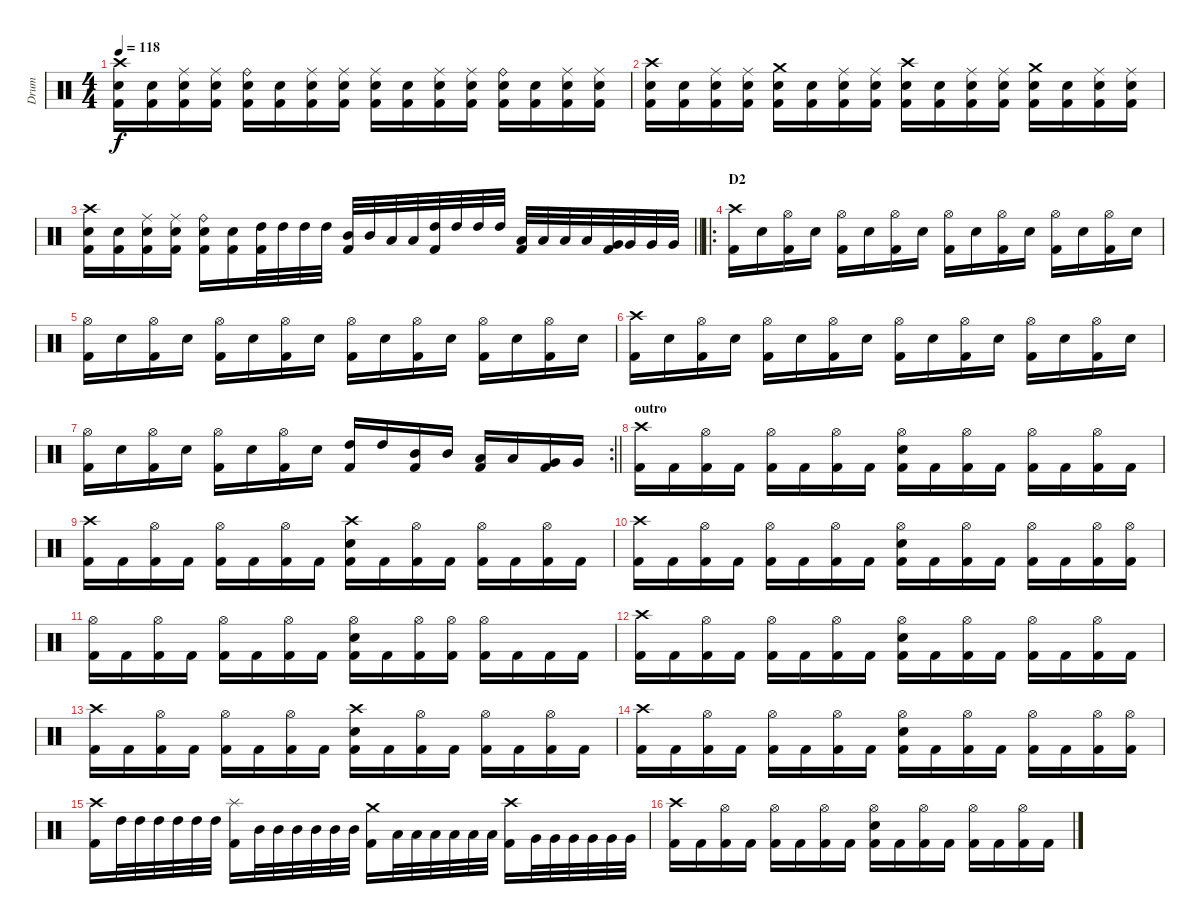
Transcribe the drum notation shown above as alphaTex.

\track ("Drum" "Drum") {instrument percussion}
\staff {score}
\articulation defaults
\ts (4 4)
\tempo 118
\clef neutral
\ks c
("Crash high (hit)" "Electric Snare (hit)" "Kick (hit) 2").16{dy f} ("Electric Snare (hit)" "Kick (hit) 2").16 ("Ride (middle)" "Electric Snare (hit)" "Kick (hit) 2").16 ("Ride (middle)" "Electric Snare (hit)" "Kick (hit) 2").16 ("Ride (bell)" "Electric Snare (hit)" "Kick (hit) 2").16 ("Electric Snare (hit)" "Kick (hit) 2").16 ("Ride (middle)" "Electric Snare (hit)" "Kick (hit) 2").16 ("Ride (middle)" "Electric Snare (hit)" "Kick (hit) 2").16 ("Ride (middle)" "Electric Snare (hit)" "Kick (hit) 2").16 ("Electric Snare (hit)" "Kick (hit) 2").16 ("Ride (middle)" "Electric Snare (hit)" "Kick (hit) 2").16 ("Ride (middle)" "Electric Snare (hit)" "Kick (hit) 2").16 ("Ride (bell)" "Electric Snare (hit)" "Kick (hit) 2").16 ("Electric Snare (hit)" "Kick (hit) 2").16 ("Ride (middle)" "Electric Snare (hit)" "Kick (hit) 2").16 ("Ride (middle)" "Electric Snare (hit)" "Kick (hit) 2").16 |
("Crash high (hit)" "Electric Snare (hit)" "Kick (hit) 2").16 ("Electric Snare (hit)" "Kick (hit) 2").16 ("Ride (middle)" "Electric Snare (hit)" "Kick (hit) 2").16 ("Ride (middle)" "Electric Snare (hit)" "Kick (hit) 2").16 ("Crash medium (hit)" "Electric Snare (hit)" "Kick (hit) 2").16 ("Electric Snare (hit)" "Kick (hit) 2").16 ("Ride (middle)" "Electric Snare (hit)" "Kick (hit) 2").16 ("Ride (middle)" "Electric Snare (hit)" "Kick (hit) 2").16 ("Crash high (hit)" "Electric Snare (hit)" "Kick (hit) 2").16 ("Electric Snare (hit)" "Kick (hit) 2").16 ("Ride (middle)" "Electric Snare (hit)" "Kick (hit) 2").16 ("Ride (middle)" "Electric Snare (hit)" "Kick (hit) 2").16 ("Crash medium (hit)" "Electric Snare (hit)" "Kick (hit) 2").16 ("Electric Snare (hit)" "Kick (hit) 2").16 ("Ride (middle)" "Electric Snare (hit)" "Kick (hit) 2").16 ("Ride (middle)" "Electric Snare (hit)" "Kick (hit) 2").16 |
\barLineRight lightlight
("Crash high (hit)" "Electric Snare (hit)" "Kick (hit) 2").16 ("Electric Snare (hit)" "Kick (hit) 2").16 ("Ride (middle)" "Electric Snare (hit)" "Kick (hit) 2").16 ("Ride (middle)" "Electric Snare (hit)" "Kick (hit) 2").16 ("Ride (bell)" "Electric Snare (hit)" "Kick (hit) 2").16 ("Electric Snare (hit)" "Kick (hit) 2").16 ("High Tom (hit)" "Kick (hit) 2").32 "High Tom (hit)".32 "High Tom (hit)".32 "High Tom (hit)".32 ("Mid Tom (hit)" "Kick (hit) 2").32 "Mid Tom (hit)".32 "Low Tom (hit)".32 "Low Tom (hit)".32 ("High Tom (hit)" "Kick (hit) 2").32 "High Tom (hit)".32 "High Tom (hit)".32 "High Tom (hit)".32 ("Low Tom (hit)" "Kick (hit) 2").32 "Low Tom (hit)".32 "Low Tom (hit)".32 "Low Tom (hit)".32 ("Very Low Tom (hit)" "Kick (hit) 2").32 "Very Low Tom (hit)".32 "Very Low Tom (hit)".32 "Very Low Tom (hit)".32 |
\ro
\section ("" "D2")
("Crash high (hit)" "Kick (hit) 2").16 "Electric Snare (hit)".16 ("Hi-Hat (open)" "Kick (hit) 2").16 "Electric Snare (hit)".16 ("Hi-Hat (open)" "Kick (hit) 2").16 "Electric Snare (hit)".16 ("Hi-Hat (open)" "Kick (hit) 2").16 "Electric Snare (hit)".16 ("Hi-Hat (open)" "Kick (hit) 2").16 "Electric Snare (hit)".16 ("Hi-Hat (open)" "Kick (hit) 2").16 "Electric Snare (hit)".16 ("Hi-Hat (open)" "Kick (hit) 2").16 "Electric Snare (hit)".16 ("Hi-Hat (open)" "Kick (hit) 2").16 "Electric Snare (hit)".16 |
("Hi-Hat (open)" "Kick (hit) 2").16 "Electric Snare (hit)".16 ("Hi-Hat (open)" "Kick (hit) 2").16 "Electric Snare (hit)".16 ("Hi-Hat (open)" "Kick (hit) 2").16 "Electric Snare (hit)".16 ("Hi-Hat (open)" "Kick (hit) 2").16 "Electric Snare (hit)".16 ("Hi-Hat (open)" "Kick (hit) 2").16 "Electric Snare (hit)".16 ("Hi-Hat (open)" "Kick (hit) 2").16 "Electric Snare (hit)".16 ("Hi-Hat (open)" "Kick (hit) 2").16 "Electric Snare (hit)".16 ("Hi-Hat (open)" "Kick (hit) 2").16 "Electric Snare (hit)".16 |
("Crash high (hit)" "Kick (hit) 2").16 "Electric Snare (hit)".16 ("Hi-Hat (open)" "Kick (hit) 2").16 "Electric Snare (hit)".16 ("Hi-Hat (open)" "Kick (hit) 2").16 "Electric Snare (hit)".16 ("Hi-Hat (open)" "Kick (hit) 2").16 "Electric Snare (hit)".16 ("Hi-Hat (open)" "Kick (hit) 2").16 "Electric Snare (hit)".16 ("Hi-Hat (open)" "Kick (hit) 2").16 "Electric Snare (hit)".16 ("Hi-Hat (open)" "Kick (hit) 2").16 "Electric Snare (hit)".16 ("Hi-Hat (open)" "Kick (hit) 2").16 "Electric Snare (hit)".16 |
\rc 2
\barLineRight lightlight
("Hi-Hat (open)" "Kick (hit) 2").16 "Electric Snare (hit)".16 ("Hi-Hat (open)" "Kick (hit) 2").16 "Electric Snare (hit)".16 ("Hi-Hat (open)" "Kick (hit) 2").16 "Electric Snare (hit)".16 ("Hi-Hat (open)" "Kick (hit) 2").16 "Electric Snare (hit)".16 ("High Tom (hit)" "Kick (hit) 2").16 "High Tom (hit)".16 ("Mid Tom (hit)" "Kick (hit) 2").16 "Mid Tom (hit)".16 ("Low Tom (hit)" "Kick (hit) 2").16 "Low Tom (hit)".16 ("Very Low Tom (hit)" "Kick (hit) 2").16 "Very Low Tom (hit)".16 |
\section ("" "outro")
("Crash high (hit)" "Kick (hit) 2").16 "Kick (hit) 2".16 ("Hi-Hat (open)" "Kick (hit) 2").16 "Kick (hit) 2".16 ("Hi-Hat (open)" "Kick (hit) 2").16 "Kick (hit) 2".16 ("Hi-Hat (open)" "Kick (hit) 2").16 "Kick (hit) 2".16 ("Hi-Hat (open)" "Electric Snare (hit)" "Kick (hit) 2").16 "Kick (hit) 2".16 ("Hi-Hat (open)" "Kick (hit) 2").16 "Kick (hit) 2".16 ("Hi-Hat (open)" "Kick (hit) 2").16 "Kick (hit) 2".16 ("Hi-Hat (open)" "Kick (hit) 2").16 "Kick (hit) 2".16 |
("Crash high (hit)" "Kick (hit) 2").16 "Kick (hit) 2".16 ("Hi-Hat (open)" "Kick (hit) 2").16 "Kick (hit) 2".16 ("Hi-Hat (open)" "Kick (hit) 2").16 "Kick (hit) 2".16 ("Hi-Hat (open)" "Kick (hit) 2").16 "Kick (hit) 2".16 ("Crash high (hit)" "Electric Snare (hit)" "Kick (hit) 2").16 "Kick (hit) 2".16 ("Hi-Hat (open)" "Kick (hit) 2").16 "Kick (hit) 2".16 ("Hi-Hat (open)" "Kick (hit) 2").16 "Kick (hit) 2".16 ("Hi-Hat (open)" "Kick (hit) 2").16 "Kick (hit) 2".16 |
("Crash high (hit)" "Kick (hit) 2").16 "Kick (hit) 2".16 ("Hi-Hat (open)" "Kick (hit) 2").16 "Kick (hit) 2".16 ("Hi-Hat (open)" "Kick (hit) 2").16 "Kick (hit) 2".16 ("Hi-Hat (open)" "Kick (hit) 2").16 "Kick (hit) 2".16 ("Hi-Hat (open)" "Electric Snare (hit)" "Kick (hit) 2").16 "Kick (hit) 2".16 ("Hi-Hat (open)" "Kick (hit) 2").16 "Kick (hit) 2".16 ("Hi-Hat (open)" "Kick (hit) 2").16 "Kick (hit) 2".16 ("Hi-Hat (open)" "Kick (hit) 2").16 ("Hi-Hat (open)" "Kick (hit) 2").16 |
("Hi-Hat (open)" "Kick (hit) 2").16 "Kick (hit) 2".16 ("Hi-Hat (open)" "Kick (hit) 2").16 "Kick (hit) 2".16 ("Hi-Hat (open)" "Kick (hit) 2").16 "Kick (hit) 2".16 ("Hi-Hat (open)" "Kick (hit) 2").16 "Kick (hit) 2".16 ("Hi-Hat (open)" "Electric Snare (hit)" "Kick (hit) 2").16 "Kick (hit) 2".16 ("Hi-Hat (open)" "Kick (hit) 2").16 ("Hi-Hat (open)" "Kick (hit) 2").16 ("Hi-Hat (open)" "Kick (hit) 2").16 "Kick (hit) 2".16 "Kick (hit) 2".16 "Kick (hit) 2".16 |
("Crash high (hit)" "Kick (hit) 2").16 "Kick (hit) 2".16 ("Hi-Hat (open)" "Kick (hit) 2").16 "Kick (hit) 2".16 ("Hi-Hat (open)" "Kick (hit) 2").16 "Kick (hit) 2".16 ("Hi-Hat (open)" "Kick (hit) 2").16 "Kick (hit) 2".16 ("Hi-Hat (open)" "Electric Snare (hit)" "Kick (hit) 2").16 "Kick (hit) 2".16 ("Hi-Hat (open)" "Kick (hit) 2").16 "Kick (hit) 2".16 ("Hi-Hat (open)" "Kick (hit) 2").16 "Kick (hit) 2".16 ("Hi-Hat (open)" "Kick (hit) 2").16 "Kick (hit) 2".16 |
("Crash high (hit)" "Kick (hit) 2").16 "Kick (hit) 2".16 ("Hi-Hat (open)" "Kick (hit) 2").16 "Kick (hit) 2".16 ("Hi-Hat (open)" "Kick (hit) 2").16 "Kick (hit) 2".16 ("Hi-Hat (open)" "Kick (hit) 2").16 "Kick (hit) 2".16 ("Crash high (hit)" "Electric Snare (hit)" "Kick (hit) 2").16 "Kick (hit) 2".16 ("Hi-Hat (open)" "Kick (hit) 2").16 "Kick (hit) 2".16 ("Hi-Hat (open)" "Kick (hit) 2").16 "Kick (hit) 2".16 ("Hi-Hat (open)" "Kick (hit) 2").16 "Kick (hit) 2".16 |
("Crash high (hit)" "Kick (hit) 2").16 "Kick (hit) 2".16 ("Hi-Hat (open)" "Kick (hit) 2").16 "Kick (hit) 2".16 ("Hi-Hat (open)" "Kick (hit) 2").16 "Kick (hit) 2".16 ("Hi-Hat (open)" "Kick (hit) 2").16 "Kick (hit) 2".16 ("Hi-Hat (open)" "Electric Snare (hit)" "Kick (hit) 2").16 "Kick (hit) 2".16 ("Hi-Hat (open)" "Kick (hit) 2").16 "Kick (hit) 2".16 ("Hi-Hat (open)" "Kick (hit) 2").16 "Kick (hit) 2".16 ("Hi-Hat (open)" "Kick (hit) 2").16 ("Hi-Hat (open)" "Kick (hit) 2").16 |
("Crash high (hit)" "Kick (hit) 2").16 "High Tom (hit)".32 "High Tom (hit)".32 "High Tom (hit)".32 "High Tom (hit)".32 "High Tom (hit)".32 "High Tom (hit)".32 ("Splash (hit)" "Kick (hit) 2").16 "Mid Tom (hit)".32 "Mid Tom (hit)".32 "Mid Tom (hit)".32 "Mid Tom (hit)".32 "Mid Tom (hit)".32 "Mid Tom (hit)".32 ("Crash medium (hit)" "Kick (hit) 2").16 "Low Tom (hit)".32 "Low Tom (hit)".32 "Low Tom (hit)".32 "Low Tom (hit)".32 "Low Tom (hit)".32 "Low Tom (hit)".32 ("Crash high (hit)" "Kick (hit) 2").16 "Very Low Tom (hit)".32 "Very Low Tom (hit)".32 "Very Low Tom (hit)".32 "Very Low Tom (hit)".32 "Very Low Tom (hit)".32 "Very Low Tom (hit)".32 |
("Crash high (hit)" "Kick (hit) 2").16 "Kick (hit) 2".16 ("Hi-Hat (open)" "Kick (hit) 2").16 "Kick (hit) 2".16 ("Hi-Hat (open)" "Kick (hit) 2").16 "Kick (hit) 2".16 ("Hi-Hat (open)" "Kick (hit) 2").16 "Kick (hit) 2".16 ("Hi-Hat (open)" "Electric Snare (hit)" "Kick (hit) 2").16 "Kick (hit) 2".16 ("Hi-Hat (open)" "Kick (hit) 2").16 "Kick (hit) 2".16 ("Hi-Hat (open)" "Kick (hit) 2").16 "Kick (hit) 2".16 ("Hi-Hat (open)" "Kick (hit) 2").16 "Kick (hit) 2".16
